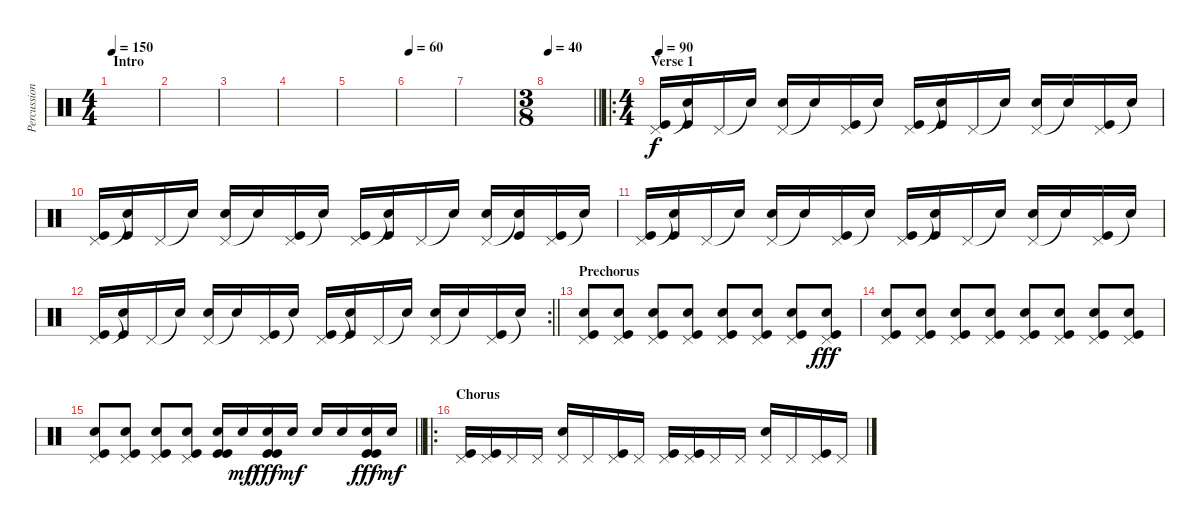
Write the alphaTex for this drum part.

\track ("Percussion" "Percussion") {instrument percussion}
\staff {score}
\articulation defaults
\ts (4 4)
\section ("" "Intro")
\tempo 150
\clef neutral
\ks c
|
|
|
|
|
\tempo 60
|
|
\ts (3 8)
\tempo 40
\barLineRight lightlight
|
\ro
\ts (4 4)
\section ("" "Verse 1")
\tempo 90
("Pedal Hi-Hat (hit)" "Kick (hit)").16 ("Snare (hit)"{t} "Kick (hit)").16 "Pedal Hi-Hat (hit)".16 "Snare (hit)"{t}.16 ("Pedal Hi-Hat (hit)" "Electric Snare (hit)").16 "Snare (hit)"{t}.16 ("Pedal Hi-Hat (hit)" "Kick (hit)").16 "Snare (hit)"{t}.16 ("Pedal Hi-Hat (hit)" "Kick (hit)").16 ("Snare (hit)"{t} "Kick (hit)").16 "Pedal Hi-Hat (hit)".16 "Snare (hit)"{t}.16 ("Pedal Hi-Hat (hit)" "Electric Snare (hit)").16 "Snare (hit)"{t}.16 ("Pedal Hi-Hat (hit)" "Kick (hit)").16 "Snare (hit)"{t}.16 |
("Pedal Hi-Hat (hit)" "Kick (hit)").16 ("Snare (hit)"{t} "Kick (hit)").16 "Pedal Hi-Hat (hit)".16 "Snare (hit)"{t}.16 ("Pedal Hi-Hat (hit)" "Electric Snare (hit)").16 "Snare (hit)"{t}.16 ("Pedal Hi-Hat (hit)" "Kick (hit)").16 "Snare (hit)"{t}.16 ("Pedal Hi-Hat (hit)" "Kick (hit)").16 ("Snare (hit)"{t} "Kick (hit)").16 "Pedal Hi-Hat (hit)".16 "Snare (hit)"{t}.16 ("Pedal Hi-Hat (hit)" "Electric Snare (hit)").16 ("Snare (hit)"{t} "Kick (hit)").16 ("Pedal Hi-Hat (hit)" "Kick (hit)").16 "Snare (hit)"{t}.16 |
("Pedal Hi-Hat (hit)" "Kick (hit)").16 ("Snare (hit)"{t} "Kick (hit)").16 "Pedal Hi-Hat (hit)".16 "Snare (hit)"{t}.16 ("Pedal Hi-Hat (hit)" "Electric Snare (hit)").16 "Snare (hit)"{t}.16 ("Pedal Hi-Hat (hit)" "Kick (hit)").16 "Snare (hit)"{t}.16 ("Pedal Hi-Hat (hit)" "Kick (hit)").16 ("Snare (hit)"{t} "Kick (hit)").16 "Pedal Hi-Hat (hit)".16 "Snare (hit)"{t}.16 ("Pedal Hi-Hat (hit)" "Electric Snare (hit)").16 "Snare (hit)"{t}.16 ("Pedal Hi-Hat (hit)" "Kick (hit)").16 "Snare (hit)"{t}.16 |
\rc 2
\barLineRight lightlight
("Pedal Hi-Hat (hit)" "Kick (hit)").16 ("Snare (hit)"{t} "Kick (hit)").16 "Pedal Hi-Hat (hit)".16 "Snare (hit)"{t}.16 ("Pedal Hi-Hat (hit)" "Electric Snare (hit)").16 "Snare (hit)"{t}.16 ("Pedal Hi-Hat (hit)" "Kick (hit)").16 "Snare (hit)"{t}.16 ("Pedal Hi-Hat (hit)" "Kick (hit)").16 ("Snare (hit)"{t} "Kick (hit)").16 "Pedal Hi-Hat (hit)".16 "Snare (hit)"{t}.16 ("Pedal Hi-Hat (hit)" "Electric Snare (hit)").16 "Snare (hit)"{t}.16 ("Pedal Hi-Hat (hit)" "Kick (hit)").16 "Snare (hit)"{t}.16 |
\section ("" "Prechorus")
("Pedal Hi-Hat (hit)" "Electric Snare (hit)" "Kick (hit)").8{dy f} ("Pedal Hi-Hat (hit)" "Electric Snare (hit)" "Kick (hit)").8 ("Pedal Hi-Hat (hit)" "Electric Snare (hit)" "Kick (hit)").8 ("Pedal Hi-Hat (hit)" "Electric Snare (hit)" "Kick (hit)").8 ("Pedal Hi-Hat (hit)" "Electric Snare (hit)" "Kick (hit)").8 ("Pedal Hi-Hat (hit)" "Electric Snare (hit)" "Kick (hit)").8 ("Pedal Hi-Hat (hit)" "Electric Snare (hit)" "Kick (hit)").8 ("Pedal Hi-Hat (hit)" "Electric Snare (hit)" "Kick (hit)").8{dy fff} |
("Pedal Hi-Hat (hit)" "Electric Snare (hit)" "Kick (hit)").8 ("Pedal Hi-Hat (hit)" "Electric Snare (hit)" "Kick (hit)").8 ("Pedal Hi-Hat (hit)" "Electric Snare (hit)" "Kick (hit)").8 ("Pedal Hi-Hat (hit)" "Electric Snare (hit)" "Kick (hit)").8 ("Pedal Hi-Hat (hit)" "Electric Snare (hit)" "Kick (hit)").8 ("Pedal Hi-Hat (hit)" "Electric Snare (hit)" "Kick (hit)").8 ("Pedal Hi-Hat (hit)" "Electric Snare (hit)" "Kick (hit)").8 ("Pedal Hi-Hat (hit)" "Electric Snare (hit)" "Kick (hit)").8 |
\barLineRight lightlight
("Pedal Hi-Hat (hit)" "Electric Snare (hit)" "Kick (hit)").8 ("Pedal Hi-Hat (hit)" "Electric Snare (hit)" "Kick (hit)").8 ("Pedal Hi-Hat (hit)" "Electric Snare (hit)" "Kick (hit)").8 ("Pedal Hi-Hat (hit)" "Electric Snare (hit)" "Kick (hit)").8 ("Electric Snare (hit)" "Kick (hit)" "Kick (hit)").16 "Electric Snare (hit)".16{dy mf} ("Electric Snare (hit)" "Kick (hit)" "Kick (hit)").16{dy fff} "Electric Snare (hit)".16{dy mf} "Electric Snare (hit)".16 "Electric Snare (hit)".16 ("Electric Snare (hit)" "Kick (hit)" "Kick (hit)").16{dy fff} "Electric Snare (hit)".16{dy mf} |
\ro
\section ("" "Chorus")
("Pedal Hi-Hat (hit)" "Kick (hit)").16 ("Pedal Hi-Hat (hit)" "Kick (hit)").16 "Pedal Hi-Hat (hit)".16 "Pedal Hi-Hat (hit)".16 ("Pedal Hi-Hat (hit)" "Electric Snare (hit)").16 "Pedal Hi-Hat (hit)".16 ("Pedal Hi-Hat (hit)" "Kick (hit)").16 "Pedal Hi-Hat (hit)".16 ("Pedal Hi-Hat (hit)" "Kick (hit)").16 ("Pedal Hi-Hat (hit)" "Kick (hit)").16 "Pedal Hi-Hat (hit)".16 "Pedal Hi-Hat (hit)".16 ("Pedal Hi-Hat (hit)" "Electric Snare (hit)").16 "Pedal Hi-Hat (hit)".16 ("Pedal Hi-Hat (hit)" "Kick (hit)").16 "Pedal Hi-Hat (hit)".16
